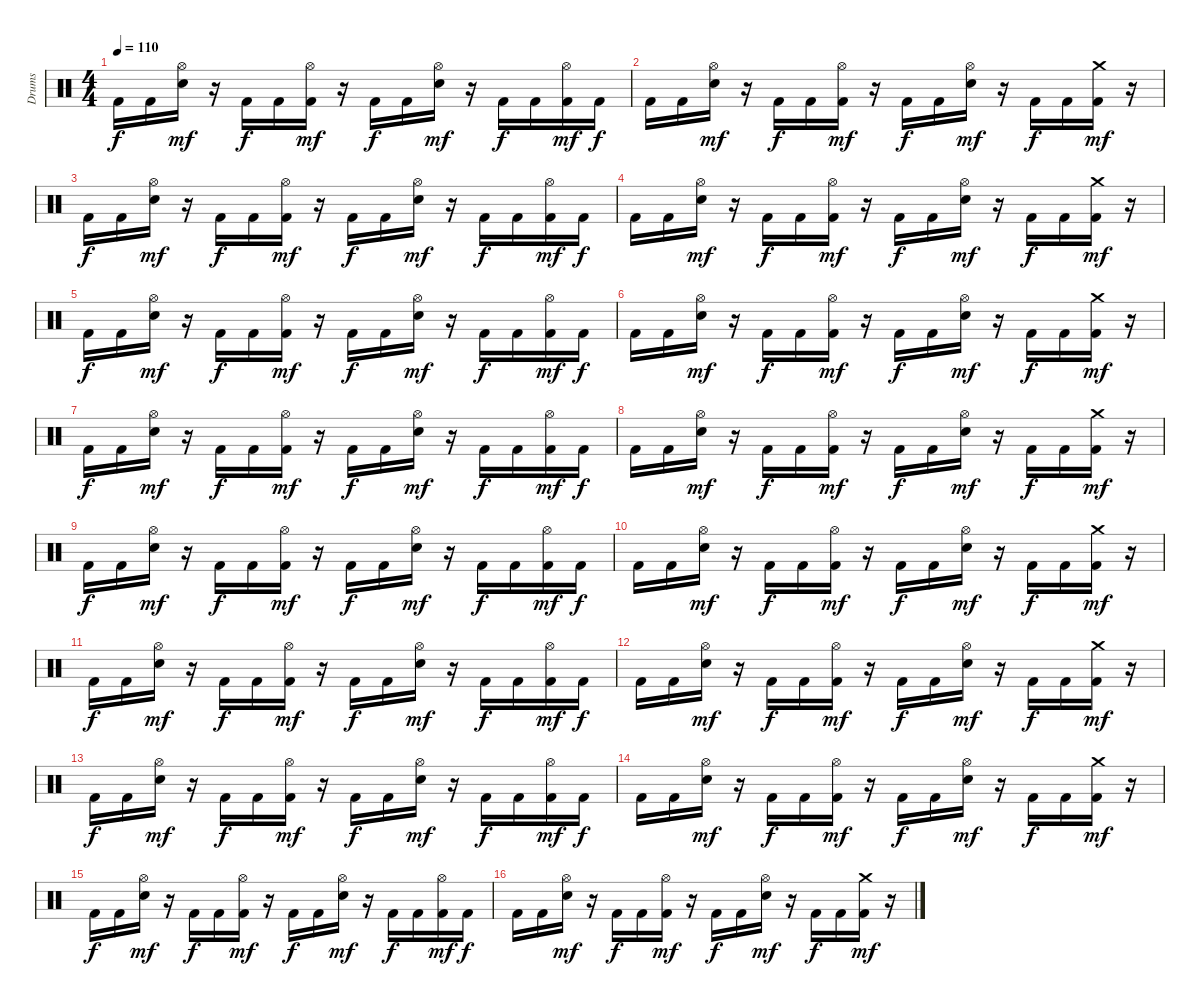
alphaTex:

\track ("Drums" "Drums") {instrument percussion}
\staff {score}
\articulation defaults
\ts (4 4)
\tempo 110
\clef neutral
\ks c "Kick (hit) 2".16{dy f} "Kick (hit) 2".16
("Hi-Hat (open)" "Electric Snare (hit)").16{dy mf} r.16 "Kick (hit) 2".16{dy f} "Kick (hit) 2".16 ("Hi-Hat (open)" "Kick (hit) 2").16{dy mf} r.16 "Kick (hit) 2".16{dy f} "Kick (hit) 2".16 ("Hi-Hat (open)" "Electric Snare (hit)").16{dy mf} r.16 "Kick (hit) 2".16{dy f} "Kick (hit) 2".16 ("Hi-Hat (open)" "Kick (hit) 2").16{dy mf} "Kick (hit) 2".16{dy f} |
"Kick (hit) 2".16 "Kick (hit) 2".16 ("Hi-Hat (open)" "Electric Snare (hit)").16{dy mf} r.16 "Kick (hit) 2".16{dy f} "Kick (hit) 2".16 ("Hi-Hat (open)" "Kick (hit) 2").16{dy mf} r.16 "Kick (hit) 2".16{dy f} "Kick (hit) 2".16 ("Hi-Hat (open)" "Electric Snare (hit)").16{dy mf} r.16 "Kick (hit) 2".16{dy f} "Kick (hit) 2".16 ("Crash medium (hit)" "Kick (hit) 2").16{dy mf} r.16 |
"Kick (hit) 2".16{dy f} "Kick (hit) 2".16 ("Hi-Hat (open)" "Electric Snare (hit)").16{dy mf} r.16 "Kick (hit) 2".16{dy f} "Kick (hit) 2".16 ("Hi-Hat (open)" "Kick (hit) 2").16{dy mf} r.16 "Kick (hit) 2".16{dy f} "Kick (hit) 2".16 ("Hi-Hat (open)" "Electric Snare (hit)").16{dy mf} r.16 "Kick (hit) 2".16{dy f} "Kick (hit) 2".16 ("Hi-Hat (open)" "Kick (hit) 2").16{dy mf} "Kick (hit) 2".16{dy f} |
"Kick (hit) 2".16 "Kick (hit) 2".16 ("Hi-Hat (open)" "Electric Snare (hit)").16{dy mf} r.16 "Kick (hit) 2".16{dy f} "Kick (hit) 2".16 ("Hi-Hat (open)" "Kick (hit) 2").16{dy mf} r.16 "Kick (hit) 2".16{dy f} "Kick (hit) 2".16 ("Hi-Hat (open)" "Electric Snare (hit)").16{dy mf} r.16 "Kick (hit) 2".16{dy f} "Kick (hit) 2".16 ("Crash medium (hit)" "Kick (hit) 2").16{dy mf} r.16 |
"Kick (hit) 2".16{dy f} "Kick (hit) 2".16 ("Hi-Hat (open)" "Electric Snare (hit)").16{dy mf} r.16 "Kick (hit) 2".16{dy f} "Kick (hit) 2".16 ("Hi-Hat (open)" "Kick (hit) 2").16{dy mf} r.16 "Kick (hit) 2".16{dy f} "Kick (hit) 2".16 ("Hi-Hat (open)" "Electric Snare (hit)").16{dy mf} r.16 "Kick (hit) 2".16{dy f} "Kick (hit) 2".16 ("Hi-Hat (open)" "Kick (hit) 2").16{dy mf} "Kick (hit) 2".16{dy f} |
"Kick (hit) 2".16 "Kick (hit) 2".16 ("Hi-Hat (open)" "Electric Snare (hit)").16{dy mf} r.16 "Kick (hit) 2".16{dy f} "Kick (hit) 2".16 ("Hi-Hat (open)" "Kick (hit) 2").16{dy mf} r.16 "Kick (hit) 2".16{dy f} "Kick (hit) 2".16 ("Hi-Hat (open)" "Electric Snare (hit)").16{dy mf} r.16 "Kick (hit) 2".16{dy f} "Kick (hit) 2".16 ("Crash medium (hit)" "Kick (hit) 2").16{dy mf} r.16 |
"Kick (hit) 2".16{dy f} "Kick (hit) 2".16 ("Hi-Hat (open)" "Electric Snare (hit)").16{dy mf} r.16 "Kick (hit) 2".16{dy f} "Kick (hit) 2".16 ("Hi-Hat (open)" "Kick (hit) 2").16{dy mf} r.16 "Kick (hit) 2".16{dy f} "Kick (hit) 2".16 ("Hi-Hat (open)" "Electric Snare (hit)").16{dy mf} r.16 "Kick (hit) 2".16{dy f} "Kick (hit) 2".16 ("Hi-Hat (open)" "Kick (hit) 2").16{dy mf} "Kick (hit) 2".16{dy f} |
"Kick (hit) 2".16 "Kick (hit) 2".16 ("Hi-Hat (open)" "Electric Snare (hit)").16{dy mf} r.16 "Kick (hit) 2".16{dy f} "Kick (hit) 2".16 ("Hi-Hat (open)" "Kick (hit) 2").16{dy mf} r.16 "Kick (hit) 2".16{dy f} "Kick (hit) 2".16 ("Hi-Hat (open)" "Electric Snare (hit)").16{dy mf} r.16 "Kick (hit) 2".16{dy f} "Kick (hit) 2".16 ("Crash medium (hit)" "Kick (hit) 2").16{dy mf} r.16 |
"Kick (hit) 2".16{dy f} "Kick (hit) 2".16 ("Hi-Hat (open)" "Electric Snare (hit)").16{dy mf} r.16 "Kick (hit) 2".16{dy f} "Kick (hit) 2".16 ("Hi-Hat (open)" "Kick (hit) 2").16{dy mf} r.16 "Kick (hit) 2".16{dy f} "Kick (hit) 2".16 ("Hi-Hat (open)" "Electric Snare (hit)").16{dy mf} r.16 "Kick (hit) 2".16{dy f} "Kick (hit) 2".16 ("Hi-Hat (open)" "Kick (hit) 2").16{dy mf} "Kick (hit) 2".16{dy f} |
"Kick (hit) 2".16 "Kick (hit) 2".16 ("Hi-Hat (open)" "Electric Snare (hit)").16{dy mf} r.16 "Kick (hit) 2".16{dy f} "Kick (hit) 2".16 ("Hi-Hat (open)" "Kick (hit) 2").16{dy mf} r.16 "Kick (hit) 2".16{dy f} "Kick (hit) 2".16 ("Hi-Hat (open)" "Electric Snare (hit)").16{dy mf} r.16 "Kick (hit) 2".16{dy f} "Kick (hit) 2".16 ("Crash medium (hit)" "Kick (hit) 2").16{dy mf} r.16 |
"Kick (hit) 2".16{dy f} "Kick (hit) 2".16 ("Hi-Hat (open)" "Electric Snare (hit)").16{dy mf} r.16 "Kick (hit) 2".16{dy f} "Kick (hit) 2".16 ("Hi-Hat (open)" "Kick (hit) 2").16{dy mf} r.16 "Kick (hit) 2".16{dy f} "Kick (hit) 2".16 ("Hi-Hat (open)" "Electric Snare (hit)").16{dy mf} r.16 "Kick (hit) 2".16{dy f} "Kick (hit) 2".16 ("Hi-Hat (open)" "Kick (hit) 2").16{dy mf} "Kick (hit) 2".16{dy f} |
"Kick (hit) 2".16 "Kick (hit) 2".16 ("Hi-Hat (open)" "Electric Snare (hit)").16{dy mf} r.16 "Kick (hit) 2".16{dy f} "Kick (hit) 2".16 ("Hi-Hat (open)" "Kick (hit) 2").16{dy mf} r.16 "Kick (hit) 2".16{dy f} "Kick (hit) 2".16 ("Hi-Hat (open)" "Electric Snare (hit)").16{dy mf} r.16 "Kick (hit) 2".16{dy f} "Kick (hit) 2".16 ("Crash medium (hit)" "Kick (hit) 2").16{dy mf} r.16 |
"Kick (hit) 2".16{dy f} "Kick (hit) 2".16 ("Hi-Hat (open)" "Electric Snare (hit)").16{dy mf} r.16 "Kick (hit) 2".16{dy f} "Kick (hit) 2".16 ("Hi-Hat (open)" "Kick (hit) 2").16{dy mf} r.16 "Kick (hit) 2".16{dy f} "Kick (hit) 2".16 ("Hi-Hat (open)" "Electric Snare (hit)").16{dy mf} r.16 "Kick (hit) 2".16{dy f} "Kick (hit) 2".16 ("Hi-Hat (open)" "Kick (hit) 2").16{dy mf} "Kick (hit) 2".16{dy f} |
"Kick (hit) 2".16 "Kick (hit) 2".16 ("Hi-Hat (open)" "Electric Snare (hit)").16{dy mf} r.16 "Kick (hit) 2".16{dy f} "Kick (hit) 2".16 ("Hi-Hat (open)" "Kick (hit) 2").16{dy mf} r.16 "Kick (hit) 2".16{dy f} "Kick (hit) 2".16 ("Hi-Hat (open)" "Electric Snare (hit)").16{dy mf} r.16 "Kick (hit) 2".16{dy f} "Kick (hit) 2".16 ("Crash medium (hit)" "Kick (hit) 2").16{dy mf} r.16 |
"Kick (hit) 2".16{dy f} "Kick (hit) 2".16 ("Hi-Hat (open)" "Electric Snare (hit)").16{dy mf} r.16 "Kick (hit) 2".16{dy f} "Kick (hit) 2".16 ("Hi-Hat (open)" "Kick (hit) 2").16{dy mf} r.16 "Kick (hit) 2".16{dy f} "Kick (hit) 2".16 ("Hi-Hat (open)" "Electric Snare (hit)").16{dy mf} r.16 "Kick (hit) 2".16{dy f} "Kick (hit) 2".16 ("Hi-Hat (open)" "Kick (hit) 2").16{dy mf} "Kick (hit) 2".16{dy f} |
"Kick (hit) 2".16 "Kick (hit) 2".16 ("Hi-Hat (open)" "Electric Snare (hit)").16{dy mf} r.16 "Kick (hit) 2".16{dy f} "Kick (hit) 2".16 ("Hi-Hat (open)" "Kick (hit) 2").16{dy mf} r.16 "Kick (hit) 2".16{dy f} "Kick (hit) 2".16 ("Hi-Hat (open)" "Electric Snare (hit)").16{dy mf} r.16 "Kick (hit) 2".16{dy f} "Kick (hit) 2".16 ("Crash medium (hit)" "Kick (hit) 2").16{dy mf} r.16
